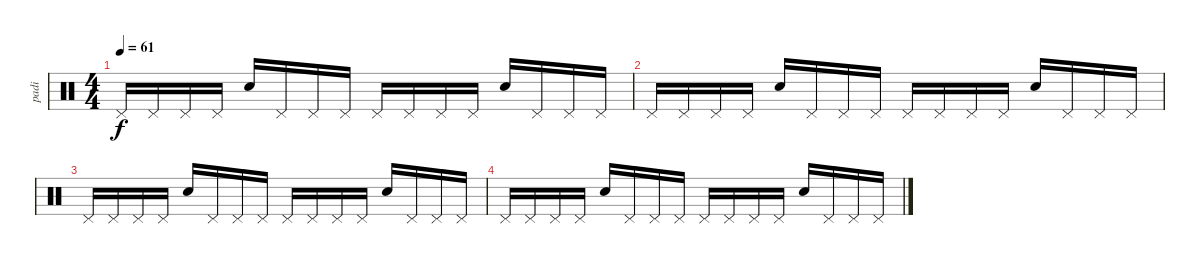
\track ("padi" "padi") {instrument percussion}
\staff {score}
\articulation defaults
\ts (4 4)
\tempo 61
\clef neutral
\ks c "Pedal Hi-Hat (hit)".16{dy f} "Pedal Hi-Hat (hit)".16 "Pedal Hi-Hat (hit)".16 "Pedal Hi-Hat (hit)".16 "Snare (hit) 2".16 "Pedal Hi-Hat (hit)".16 "Pedal Hi-Hat (hit)".16 "Pedal Hi-Hat (hit)".16 "Pedal Hi-Hat (hit)".16 "Pedal Hi-Hat (hit)".16 "Pedal Hi-Hat (hit)".16 "Pedal Hi-Hat (hit)".16 "Snare (hit) 2".16 "Pedal Hi-Hat (hit)".16 "Pedal Hi-Hat (hit)".16 "Pedal Hi-Hat (hit)".16
|
"Pedal Hi-Hat (hit)".16 "Pedal Hi-Hat (hit)".16 "Pedal Hi-Hat (hit)".16 "Pedal Hi-Hat (hit)".16 "Snare (hit) 2".16 "Pedal Hi-Hat (hit)".16 "Pedal Hi-Hat (hit)".16 "Pedal Hi-Hat (hit)".16 "Pedal Hi-Hat (hit)".16 "Pedal Hi-Hat (hit)".16 "Pedal Hi-Hat (hit)".16 "Pedal Hi-Hat (hit)".16 "Snare (hit) 2".16 "Pedal Hi-Hat (hit)".16 "Pedal Hi-Hat (hit)".16 "Pedal Hi-Hat (hit)".16 |
"Pedal Hi-Hat (hit)".16 "Pedal Hi-Hat (hit)".16 "Pedal Hi-Hat (hit)".16 "Pedal Hi-Hat (hit)".16 "Snare (hit) 2".16 "Pedal Hi-Hat (hit)".16 "Pedal Hi-Hat (hit)".16 "Pedal Hi-Hat (hit)".16 "Pedal Hi-Hat (hit)".16 "Pedal Hi-Hat (hit)".16 "Pedal Hi-Hat (hit)".16 "Pedal Hi-Hat (hit)".16 "Snare (hit) 2".16 "Pedal Hi-Hat (hit)".16 "Pedal Hi-Hat (hit)".16 "Pedal Hi-Hat (hit)".16 |
"Pedal Hi-Hat (hit)".16 "Pedal Hi-Hat (hit)".16 "Pedal Hi-Hat (hit)".16 "Pedal Hi-Hat (hit)".16 "Snare (hit) 2".16 "Pedal Hi-Hat (hit)".16 "Pedal Hi-Hat (hit)".16 "Pedal Hi-Hat (hit)".16 "Pedal Hi-Hat (hit)".16 "Pedal Hi-Hat (hit)".16 "Pedal Hi-Hat (hit)".16 "Pedal Hi-Hat (hit)".16 "Snare (hit) 2".16 "Pedal Hi-Hat (hit)".16 "Pedal Hi-Hat (hit)".16 "Pedal Hi-Hat (hit)".16
